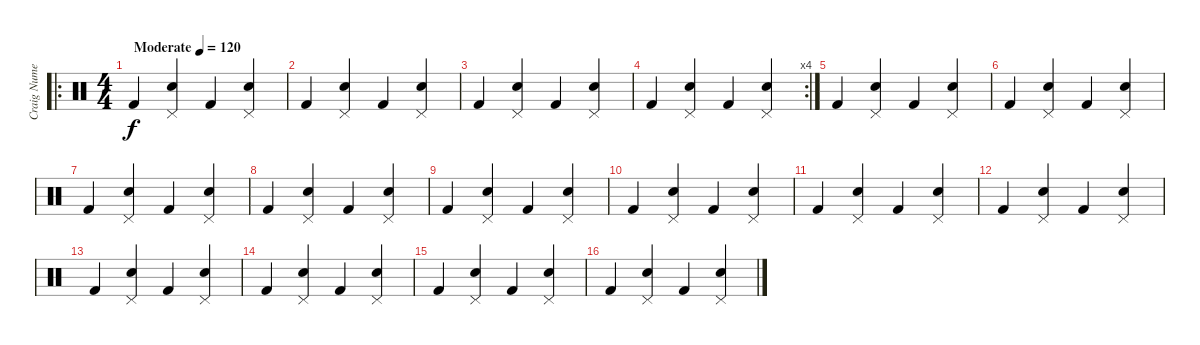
\track ("Craig Numenbacher - Drums" "Craig Nume") {instrument percussion}
\staff {score}
\articulation defaults
\ro
\ts (4 4)
\tempo (120 "Moderate")
\tempo 140
\tempo (120 "Moderate")
\clef neutral
\ks c "Kick (hit) 2".4{dy f}
("Pedal Hi-Hat (hit)" "Snare (hit) 2").4 "Kick (hit) 2".4 ("Pedal Hi-Hat (hit)" "Snare (hit) 2").4 |
"Kick (hit) 2".4 ("Pedal Hi-Hat (hit)" "Snare (hit) 2").4 "Kick (hit) 2".4 ("Pedal Hi-Hat (hit)" "Snare (hit) 2").4 |
"Kick (hit) 2".4 ("Pedal Hi-Hat (hit)" "Snare (hit) 2").4 "Kick (hit) 2".4 ("Pedal Hi-Hat (hit)" "Snare (hit) 2").4 |
\rc 4 "Kick (hit) 2".4
("Pedal Hi-Hat (hit)" "Snare (hit) 2").4 "Kick (hit) 2".4 ("Pedal Hi-Hat (hit)" "Snare (hit) 2").4 |
"Kick (hit) 2".4 ("Pedal Hi-Hat (hit)" "Snare (hit) 2").4 "Kick (hit) 2".4 ("Pedal Hi-Hat (hit)" "Snare (hit) 2").4 |
"Kick (hit) 2".4 ("Pedal Hi-Hat (hit)" "Snare (hit) 2").4 "Kick (hit) 2".4 ("Pedal Hi-Hat (hit)" "Snare (hit) 2").4 |
"Kick (hit) 2".4 ("Pedal Hi-Hat (hit)" "Snare (hit) 2").4 "Kick (hit) 2".4 ("Pedal Hi-Hat (hit)" "Snare (hit) 2").4 |
"Kick (hit) 2".4 ("Pedal Hi-Hat (hit)" "Snare (hit) 2").4 "Kick (hit) 2".4 ("Pedal Hi-Hat (hit)" "Snare (hit) 2").4 |
"Kick (hit) 2".4 ("Pedal Hi-Hat (hit)" "Snare (hit) 2").4 "Kick (hit) 2".4 ("Pedal Hi-Hat (hit)" "Snare (hit) 2").4 |
"Kick (hit) 2".4 ("Pedal Hi-Hat (hit)" "Snare (hit) 2").4 "Kick (hit) 2".4 ("Pedal Hi-Hat (hit)" "Snare (hit) 2").4 |
"Kick (hit) 2".4 ("Pedal Hi-Hat (hit)" "Snare (hit) 2").4 "Kick (hit) 2".4 ("Pedal Hi-Hat (hit)" "Snare (hit) 2").4 |
"Kick (hit) 2".4 ("Pedal Hi-Hat (hit)" "Snare (hit) 2").4 "Kick (hit) 2".4 ("Pedal Hi-Hat (hit)" "Snare (hit) 2").4 |
"Kick (hit) 2".4 ("Pedal Hi-Hat (hit)" "Snare (hit) 2").4 "Kick (hit) 2".4 ("Pedal Hi-Hat (hit)" "Snare (hit) 2").4 |
"Kick (hit) 2".4 ("Pedal Hi-Hat (hit)" "Snare (hit) 2").4 "Kick (hit) 2".4 ("Pedal Hi-Hat (hit)" "Snare (hit) 2").4 |
"Kick (hit) 2".4 ("Pedal Hi-Hat (hit)" "Snare (hit) 2").4 "Kick (hit) 2".4 ("Pedal Hi-Hat (hit)" "Snare (hit) 2").4 |
"Kick (hit) 2".4 ("Pedal Hi-Hat (hit)" "Snare (hit) 2").4 "Kick (hit) 2".4 ("Pedal Hi-Hat (hit)" "Snare (hit) 2").4
